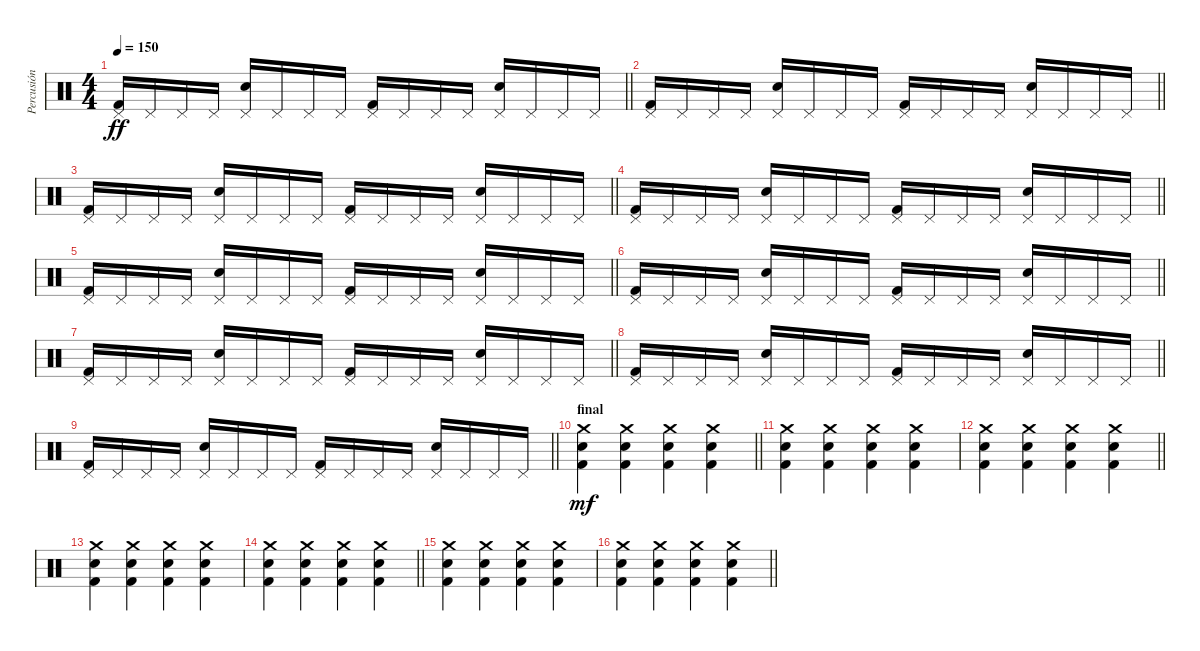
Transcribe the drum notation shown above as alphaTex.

\track ("Percusión" "Percusión") {instrument percussion}
\staff {score}
\articulation defaults
\ts (4 4)
\tempo 150
\clef neutral
\barLineRight lightlight
\ks c
("Pedal Hi-Hat (hit)" "Kick (hit) 2").16{dy ff} "Pedal Hi-Hat (hit)".16 "Pedal Hi-Hat (hit)".16 "Pedal Hi-Hat (hit)".16 ("Pedal Hi-Hat (hit)" "Electric Snare (hit)").16 "Pedal Hi-Hat (hit)".16 "Pedal Hi-Hat (hit)".16 "Pedal Hi-Hat (hit)".16 ("Pedal Hi-Hat (hit)" "Kick (hit) 2").16 "Pedal Hi-Hat (hit)".16 "Pedal Hi-Hat (hit)".16 "Pedal Hi-Hat (hit)".16 ("Pedal Hi-Hat (hit)" "Electric Snare (hit)").16 "Pedal Hi-Hat (hit)".16 "Pedal Hi-Hat (hit)".16 "Pedal Hi-Hat (hit)".16 |
\barLineRight lightlight
("Pedal Hi-Hat (hit)" "Kick (hit) 2").16 "Pedal Hi-Hat (hit)".16 "Pedal Hi-Hat (hit)".16 "Pedal Hi-Hat (hit)".16 ("Pedal Hi-Hat (hit)" "Electric Snare (hit)").16 "Pedal Hi-Hat (hit)".16 "Pedal Hi-Hat (hit)".16 "Pedal Hi-Hat (hit)".16 ("Pedal Hi-Hat (hit)" "Kick (hit) 2").16 "Pedal Hi-Hat (hit)".16 "Pedal Hi-Hat (hit)".16 "Pedal Hi-Hat (hit)".16 ("Pedal Hi-Hat (hit)" "Electric Snare (hit)").16 "Pedal Hi-Hat (hit)".16 "Pedal Hi-Hat (hit)".16 "Pedal Hi-Hat (hit)".16 |
\barLineRight lightlight
("Pedal Hi-Hat (hit)" "Kick (hit) 2").16 "Pedal Hi-Hat (hit)".16 "Pedal Hi-Hat (hit)".16 "Pedal Hi-Hat (hit)".16 ("Pedal Hi-Hat (hit)" "Electric Snare (hit)").16 "Pedal Hi-Hat (hit)".16 "Pedal Hi-Hat (hit)".16 "Pedal Hi-Hat (hit)".16 ("Pedal Hi-Hat (hit)" "Kick (hit) 2").16 "Pedal Hi-Hat (hit)".16 "Pedal Hi-Hat (hit)".16 "Pedal Hi-Hat (hit)".16 ("Pedal Hi-Hat (hit)" "Electric Snare (hit)").16 "Pedal Hi-Hat (hit)".16 "Pedal Hi-Hat (hit)".16 "Pedal Hi-Hat (hit)".16 |
\barLineRight lightlight
("Pedal Hi-Hat (hit)" "Kick (hit) 2").16 "Pedal Hi-Hat (hit)".16 "Pedal Hi-Hat (hit)".16 "Pedal Hi-Hat (hit)".16 ("Pedal Hi-Hat (hit)" "Electric Snare (hit)").16 "Pedal Hi-Hat (hit)".16 "Pedal Hi-Hat (hit)".16 "Pedal Hi-Hat (hit)".16 ("Pedal Hi-Hat (hit)" "Kick (hit) 2").16 "Pedal Hi-Hat (hit)".16 "Pedal Hi-Hat (hit)".16 "Pedal Hi-Hat (hit)".16 ("Pedal Hi-Hat (hit)" "Electric Snare (hit)").16 "Pedal Hi-Hat (hit)".16 "Pedal Hi-Hat (hit)".16 "Pedal Hi-Hat (hit)".16 |
\barLineRight lightlight
("Pedal Hi-Hat (hit)" "Kick (hit) 2").16 "Pedal Hi-Hat (hit)".16 "Pedal Hi-Hat (hit)".16 "Pedal Hi-Hat (hit)".16 ("Pedal Hi-Hat (hit)" "Electric Snare (hit)").16 "Pedal Hi-Hat (hit)".16 "Pedal Hi-Hat (hit)".16 "Pedal Hi-Hat (hit)".16 ("Pedal Hi-Hat (hit)" "Kick (hit) 2").16 "Pedal Hi-Hat (hit)".16 "Pedal Hi-Hat (hit)".16 "Pedal Hi-Hat (hit)".16 ("Pedal Hi-Hat (hit)" "Electric Snare (hit)").16 "Pedal Hi-Hat (hit)".16 "Pedal Hi-Hat (hit)".16 "Pedal Hi-Hat (hit)".16 |
\barLineRight lightlight
("Pedal Hi-Hat (hit)" "Kick (hit) 2").16 "Pedal Hi-Hat (hit)".16 "Pedal Hi-Hat (hit)".16 "Pedal Hi-Hat (hit)".16 ("Pedal Hi-Hat (hit)" "Electric Snare (hit)").16 "Pedal Hi-Hat (hit)".16 "Pedal Hi-Hat (hit)".16 "Pedal Hi-Hat (hit)".16 ("Pedal Hi-Hat (hit)" "Kick (hit) 2").16 "Pedal Hi-Hat (hit)".16 "Pedal Hi-Hat (hit)".16 "Pedal Hi-Hat (hit)".16 ("Pedal Hi-Hat (hit)" "Electric Snare (hit)").16 "Pedal Hi-Hat (hit)".16 "Pedal Hi-Hat (hit)".16 "Pedal Hi-Hat (hit)".16 |
\barLineRight lightlight
("Pedal Hi-Hat (hit)" "Kick (hit) 2").16 "Pedal Hi-Hat (hit)".16 "Pedal Hi-Hat (hit)".16 "Pedal Hi-Hat (hit)".16 ("Pedal Hi-Hat (hit)" "Electric Snare (hit)").16 "Pedal Hi-Hat (hit)".16 "Pedal Hi-Hat (hit)".16 "Pedal Hi-Hat (hit)".16 ("Pedal Hi-Hat (hit)" "Kick (hit) 2").16 "Pedal Hi-Hat (hit)".16 "Pedal Hi-Hat (hit)".16 "Pedal Hi-Hat (hit)".16 ("Pedal Hi-Hat (hit)" "Electric Snare (hit)").16 "Pedal Hi-Hat (hit)".16 "Pedal Hi-Hat (hit)".16 "Pedal Hi-Hat (hit)".16 |
\barLineRight lightlight
("Pedal Hi-Hat (hit)" "Kick (hit) 2").16 "Pedal Hi-Hat (hit)".16 "Pedal Hi-Hat (hit)".16 "Pedal Hi-Hat (hit)".16 ("Pedal Hi-Hat (hit)" "Electric Snare (hit)").16 "Pedal Hi-Hat (hit)".16 "Pedal Hi-Hat (hit)".16 "Pedal Hi-Hat (hit)".16 ("Pedal Hi-Hat (hit)" "Kick (hit) 2").16 "Pedal Hi-Hat (hit)".16 "Pedal Hi-Hat (hit)".16 "Pedal Hi-Hat (hit)".16 ("Pedal Hi-Hat (hit)" "Electric Snare (hit)").16 "Pedal Hi-Hat (hit)".16 "Pedal Hi-Hat (hit)".16 "Pedal Hi-Hat (hit)".16 |
\barLineRight lightlight
("Pedal Hi-Hat (hit)" "Kick (hit) 2").16 "Pedal Hi-Hat (hit)".16 "Pedal Hi-Hat (hit)".16 "Pedal Hi-Hat (hit)".16 ("Pedal Hi-Hat (hit)" "Electric Snare (hit)").16 "Pedal Hi-Hat (hit)".16 "Pedal Hi-Hat (hit)".16 "Pedal Hi-Hat (hit)".16 ("Pedal Hi-Hat (hit)" "Kick (hit) 2").16 "Pedal Hi-Hat (hit)".16 "Pedal Hi-Hat (hit)".16 "Pedal Hi-Hat (hit)".16 ("Pedal Hi-Hat (hit)" "Electric Snare (hit)").16 "Pedal Hi-Hat (hit)".16 "Pedal Hi-Hat (hit)".16 "Pedal Hi-Hat (hit)".16 |
\section ("" "final")
\barLineRight lightlight
("Crash medium (hit)" "Electric Snare (hit)" "Kick (hit) 2").4{dy mf} ("Crash medium (hit)" "Electric Snare (hit)" "Kick (hit) 2").4 ("Crash medium (hit)" "Electric Snare (hit)" "Kick (hit) 2").4 ("Crash medium (hit)" "Electric Snare (hit)" "Kick (hit) 2").4 |
("Crash medium (hit)" "Electric Snare (hit)" "Kick (hit) 2").4 ("Crash medium (hit)" "Electric Snare (hit)" "Kick (hit) 2").4 ("Crash medium (hit)" "Electric Snare (hit)" "Kick (hit) 2").4 ("Crash medium (hit)" "Electric Snare (hit)" "Kick (hit) 2").4 |
\barLineRight lightlight
("Crash medium (hit)" "Electric Snare (hit)" "Kick (hit) 2").4 ("Crash medium (hit)" "Electric Snare (hit)" "Kick (hit) 2").4 ("Crash medium (hit)" "Electric Snare (hit)" "Kick (hit) 2").4 ("Crash medium (hit)" "Electric Snare (hit)" "Kick (hit) 2").4 |
("Crash medium (hit)" "Electric Snare (hit)" "Kick (hit) 2").4 ("Crash medium (hit)" "Electric Snare (hit)" "Kick (hit) 2").4 ("Crash medium (hit)" "Electric Snare (hit)" "Kick (hit) 2").4 ("Crash medium (hit)" "Electric Snare (hit)" "Kick (hit) 2").4 |
\barLineRight lightlight
("Crash medium (hit)" "Electric Snare (hit)" "Kick (hit) 2").4 ("Crash medium (hit)" "Electric Snare (hit)" "Kick (hit) 2").4 ("Crash medium (hit)" "Electric Snare (hit)" "Kick (hit) 2").4 ("Crash medium (hit)" "Electric Snare (hit)" "Kick (hit) 2").4 |
("Crash medium (hit)" "Electric Snare (hit)" "Kick (hit) 2").4 ("Crash medium (hit)" "Electric Snare (hit)" "Kick (hit) 2").4 ("Crash medium (hit)" "Electric Snare (hit)" "Kick (hit) 2").4 ("Crash medium (hit)" "Electric Snare (hit)" "Kick (hit) 2").4 |
\barLineRight lightlight
("Crash medium (hit)" "Electric Snare (hit)" "Kick (hit) 2").4 ("Crash medium (hit)" "Electric Snare (hit)" "Kick (hit) 2").4 ("Crash medium (hit)" "Electric Snare (hit)" "Kick (hit) 2").4 ("Crash medium (hit)" "Electric Snare (hit)" "Kick (hit) 2").4
